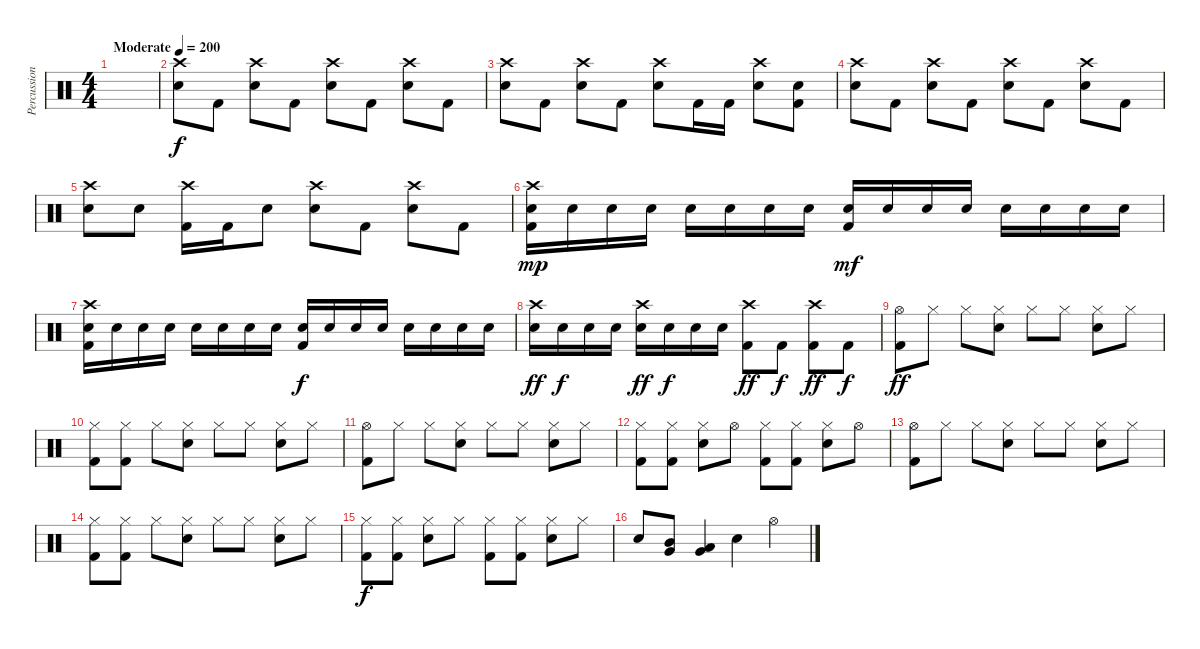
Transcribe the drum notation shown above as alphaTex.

\track ("Percussion" "Percussion") {instrument percussion}
\staff {score}
\articulation defaults
\ts (4 4)
\tempo (200 "Moderate")
\clef neutral
\ks c
|
("Crash high (hit)" "Snare (hit) 2").8 "Kick (hit) 2".8 ("Crash high (hit)" "Snare (hit) 2").8 "Kick (hit) 2".8 ("Crash high (hit)" "Snare (hit) 2").8 "Kick (hit) 2".8 ("Crash high (hit)" "Snare (hit) 2").8 "Kick (hit) 2".8 |
("Crash high (hit)" "Snare (hit) 2").8 "Kick (hit) 2".8 ("Crash high (hit)" "Snare (hit) 2").8 "Kick (hit) 2".8 ("Crash high (hit)" "Snare (hit) 2").8 "Kick (hit) 2".16 "Kick (hit) 2".16 ("Crash high (hit)" "Snare (hit) 2").8 ("Snare (hit) 2" "Kick (hit) 2").8 |
("Crash high (hit)" "Snare (hit) 2").8 "Kick (hit) 2".8 ("Crash high (hit)" "Snare (hit) 2").8 "Kick (hit) 2".8 ("Crash high (hit)" "Snare (hit) 2").8 "Kick (hit) 2".8 ("Crash high (hit)" "Snare (hit) 2").8 "Kick (hit) 2".8 |
("Crash high (hit)" "Snare (hit) 2").8 "Snare (hit) 2".8 ("Crash high (hit)" "Kick (hit) 2").16 "Kick (hit) 2".16 "Snare (hit) 2".8 ("Crash high (hit)" "Snare (hit) 2").8 "Kick (hit) 2".8 ("Crash high (hit)" "Snare (hit) 2").8 "Kick (hit) 2".8 |
("Crash high (hit)" "Snare (hit) 2" "Kick (hit) 2").16{dy mp} "Snare (hit) 2".16 "Snare (hit) 2".16 "Snare (hit) 2".16 "Snare (hit) 2".16 "Snare (hit) 2".16 "Snare (hit) 2".16 "Snare (hit) 2".16 ("Snare (hit) 2" "Kick (hit) 2").16{dy mf} "Snare (hit) 2".16 "Snare (hit) 2".16 "Snare (hit) 2".16 "Snare (hit) 2".16 "Snare (hit) 2".16 "Snare (hit) 2".16 "Snare (hit) 2".16 |
("Crash high (hit)" "Snare (hit) 2" "Kick (hit) 2").16 "Snare (hit) 2".16 "Snare (hit) 2".16 "Snare (hit) 2".16 "Snare (hit) 2".16 "Snare (hit) 2".16 "Snare (hit) 2".16 "Snare (hit) 2".16 ("Snare (hit) 2" "Kick (hit) 2").16{dy f} "Snare (hit) 2".16 "Snare (hit) 2".16 "Snare (hit) 2".16 "Snare (hit) 2".16 "Snare (hit) 2".16 "Snare (hit) 2".16 "Snare (hit) 2".16 |
("Crash high (hit)" "Snare (hit) 2").16{dy ff} "Snare (hit) 2".16{dy f} "Snare (hit) 2".16 "Snare (hit) 2".16 ("Crash high (hit)" "Snare (hit) 2").16{dy ff} "Snare (hit) 2".16{dy f} "Snare (hit) 2".16 "Snare (hit) 2".16 ("Crash high (hit)" "Kick (hit) 2").8{dy ff} "Kick (hit) 2".8{dy f} ("Crash high (hit)" "Kick (hit) 2").8{dy ff} "Kick (hit) 2".8{dy f} |
("Hi-Hat (open)" "Kick (hit) 2").8{dy ff} "Hi-Hat (closed)".8 "Hi-Hat (closed)".8 ("Hi-Hat (closed)" "Snare (hit) 2").8 "Hi-Hat (closed)".8 "Hi-Hat (closed)".8 ("Hi-Hat (closed)" "Snare (hit) 2").8 "Hi-Hat (closed)".8 |
("Hi-Hat (closed)" "Kick (hit) 2").8 ("Hi-Hat (closed)" "Kick (hit) 2").8 "Hi-Hat (closed)".8 ("Hi-Hat (closed)" "Snare (hit) 2").8 "Hi-Hat (closed)".8 "Hi-Hat (closed)".8 ("Hi-Hat (closed)" "Snare (hit) 2").8 "Hi-Hat (closed)".8 |
("Hi-Hat (open)" "Kick (hit) 2").8 "Hi-Hat (closed)".8 "Hi-Hat (closed)".8 ("Hi-Hat (closed)" "Snare (hit) 2").8 "Hi-Hat (closed)".8 "Hi-Hat (closed)".8 ("Hi-Hat (closed)" "Snare (hit) 2").8 "Hi-Hat (closed)".8 |
("Hi-Hat (closed)" "Kick (hit) 2").8 ("Hi-Hat (closed)" "Kick (hit) 2").8 ("Hi-Hat (closed)" "Snare (hit) 2").8 "Hi-Hat (open)".8 ("Hi-Hat (closed)" "Kick (hit) 2").8 ("Hi-Hat (closed)" "Kick (hit) 2").8 ("Hi-Hat (closed)" "Snare (hit) 2").8 "Hi-Hat (open)".8 |
("Hi-Hat (open)" "Kick (hit) 2").8 "Hi-Hat (closed)".8 "Hi-Hat (closed)".8 ("Hi-Hat (closed)" "Snare (hit) 2").8 "Hi-Hat (closed)".8 "Hi-Hat (closed)".8 ("Hi-Hat (closed)" "Snare (hit) 2").8 "Hi-Hat (closed)".8 |
("Hi-Hat (closed)" "Kick (hit) 2").8 ("Hi-Hat (closed)" "Kick (hit) 2").8 "Hi-Hat (closed)".8 ("Hi-Hat (closed)" "Snare (hit) 2").8 "Hi-Hat (closed)".8 "Hi-Hat (closed)".8 ("Hi-Hat (closed)" "Snare (hit) 2").8 "Hi-Hat (closed)".8 |
("Hi-Hat (closed)" "Kick (hit) 2").8{dy f} ("Hi-Hat (closed)" "Kick (hit) 2").8 ("Hi-Hat (closed)" "Snare (hit) 2").8 "Hi-Hat (closed)".8 ("Hi-Hat (closed)" "Kick (hit) 2").8 ("Hi-Hat (closed)" "Kick (hit) 2").8 ("Hi-Hat (closed)" "Snare (hit) 2").8 "Hi-Hat (closed)".8 |
"Snare (hit) 2".8 ("Mid Tom (hit)" "Very Low Tom (hit)").8 ("Low Tom (hit)" "Very Low Tom (hit)").4 "Snare (hit) 2".4 "Hi-Hat (open)".4
